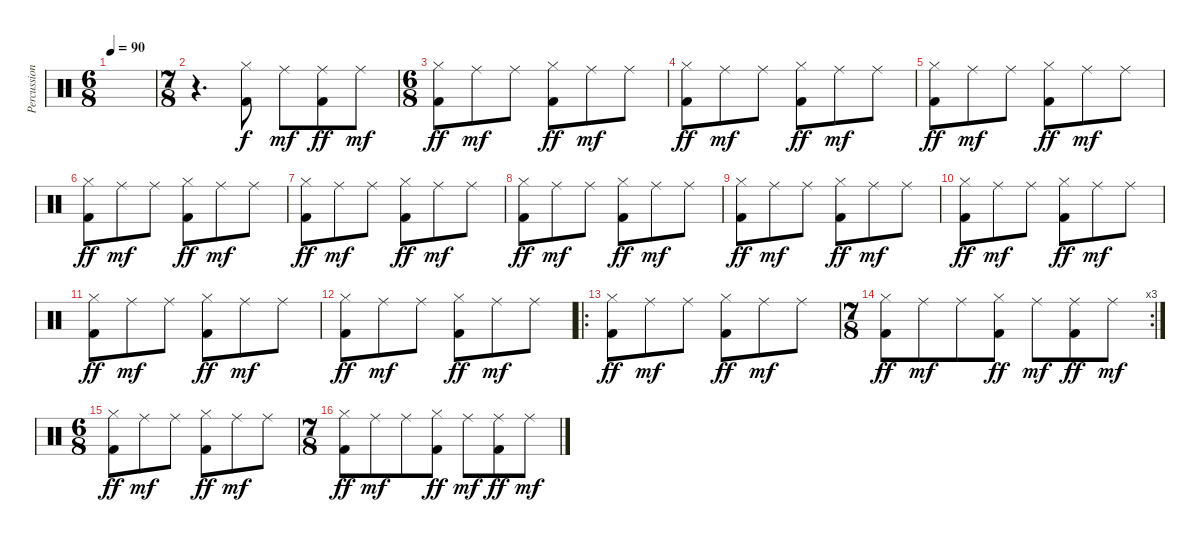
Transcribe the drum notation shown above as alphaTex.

\track ("Percussion" "Percussion") {instrument percussion}
\staff {score}
\articulation defaults
\ts (6 8)
\tempo 90
\clef neutral
\ks c
|
\ts (7 8)
r.4{d} ("Hi-Hat (closed)" "Kick (hit) 2").8 "Ride (middle)".8{dy mf} ("Ride (middle)" "Kick (hit) 2").8{dy ff} "Ride (middle)".8{dy mf} |
\ts (6 8)
("Hi-Hat (closed)" "Kick (hit) 2").8{dy ff} "Ride (middle)".8{dy mf} "Ride (middle)".8 ("Hi-Hat (closed)" "Kick (hit) 2").8{dy ff} "Ride (middle)".8{dy mf} "Ride (middle)".8 |
("Hi-Hat (closed)" "Kick (hit) 2").8{dy ff} "Ride (middle)".8{dy mf} "Ride (middle)".8 ("Hi-Hat (closed)" "Kick (hit) 2").8{dy ff} "Ride (middle)".8{dy mf} "Ride (middle)".8 |
("Hi-Hat (closed)" "Kick (hit) 2").8{dy ff} "Ride (middle)".8{dy mf} "Ride (middle)".8 ("Hi-Hat (closed)" "Kick (hit) 2").8{dy ff} "Ride (middle)".8{dy mf} "Ride (middle)".8 |
("Hi-Hat (closed)" "Kick (hit) 2").8{dy ff} "Ride (middle)".8{dy mf} "Ride (middle)".8 ("Hi-Hat (closed)" "Kick (hit) 2").8{dy ff} "Ride (middle)".8{dy mf} "Ride (middle)".8 |
("Hi-Hat (closed)" "Kick (hit) 2").8{dy ff} "Ride (middle)".8{dy mf} "Ride (middle)".8 ("Hi-Hat (closed)" "Kick (hit) 2").8{dy ff} "Ride (middle)".8{dy mf} "Ride (middle)".8 |
("Hi-Hat (closed)" "Kick (hit) 2").8{dy ff} "Ride (middle)".8{dy mf} "Ride (middle)".8 ("Hi-Hat (closed)" "Kick (hit) 2").8{dy ff} "Ride (middle)".8{dy mf} "Ride (middle)".8 |
("Hi-Hat (closed)" "Kick (hit) 2").8{dy ff} "Ride (middle)".8{dy mf} "Ride (middle)".8 ("Hi-Hat (closed)" "Kick (hit) 2").8{dy ff} "Ride (middle)".8{dy mf} "Ride (middle)".8 |
("Hi-Hat (closed)" "Kick (hit) 2").8{dy ff} "Ride (middle)".8{dy mf} "Ride (middle)".8 ("Hi-Hat (closed)" "Kick (hit) 2").8{dy ff} "Ride (middle)".8{dy mf} "Ride (middle)".8 |
("Hi-Hat (closed)" "Kick (hit) 2").8{dy ff} "Ride (middle)".8{dy mf} "Ride (middle)".8 ("Hi-Hat (closed)" "Kick (hit) 2").8{dy ff} "Ride (middle)".8{dy mf} "Ride (middle)".8 |
("Hi-Hat (closed)" "Kick (hit) 2").8{dy ff} "Ride (middle)".8{dy mf} "Ride (middle)".8 ("Hi-Hat (closed)" "Kick (hit) 2").8{dy ff} "Ride (middle)".8{dy mf} "Ride (middle)".8 |
\ro
("Hi-Hat (closed)" "Kick (hit) 2").8{dy ff} "Ride (middle)".8{dy mf} "Ride (middle)".8 ("Hi-Hat (closed)" "Kick (hit) 2").8{dy ff} "Ride (middle)".8{dy mf} "Ride (middle)".8 |
\rc 3
\ts (7 8)
("Hi-Hat (closed)" "Kick (hit) 2").8{dy ff} "Ride (middle)".8{dy mf} "Ride (middle)".8 ("Hi-Hat (closed)" "Kick (hit) 2").8{dy ff} "Ride (middle)".8{dy mf} ("Ride (middle)" "Kick (hit) 2").8{dy ff} "Ride (middle)".8{dy mf} |
\ts (6 8)
("Hi-Hat (closed)" "Kick (hit) 2").8{dy ff} "Ride (middle)".8{dy mf} "Ride (middle)".8 ("Hi-Hat (closed)" "Kick (hit) 2").8{dy ff} "Ride (middle)".8{dy mf} "Ride (middle)".8 |
\ts (7 8)
("Hi-Hat (closed)" "Kick (hit) 2").8{dy ff} "Ride (middle)".8{dy mf} "Ride (middle)".8 ("Hi-Hat (closed)" "Kick (hit) 2").8{dy ff} "Ride (middle)".8{dy mf} ("Ride (middle)" "Kick (hit) 2").8{dy ff} "Ride (middle)".8{dy mf}
